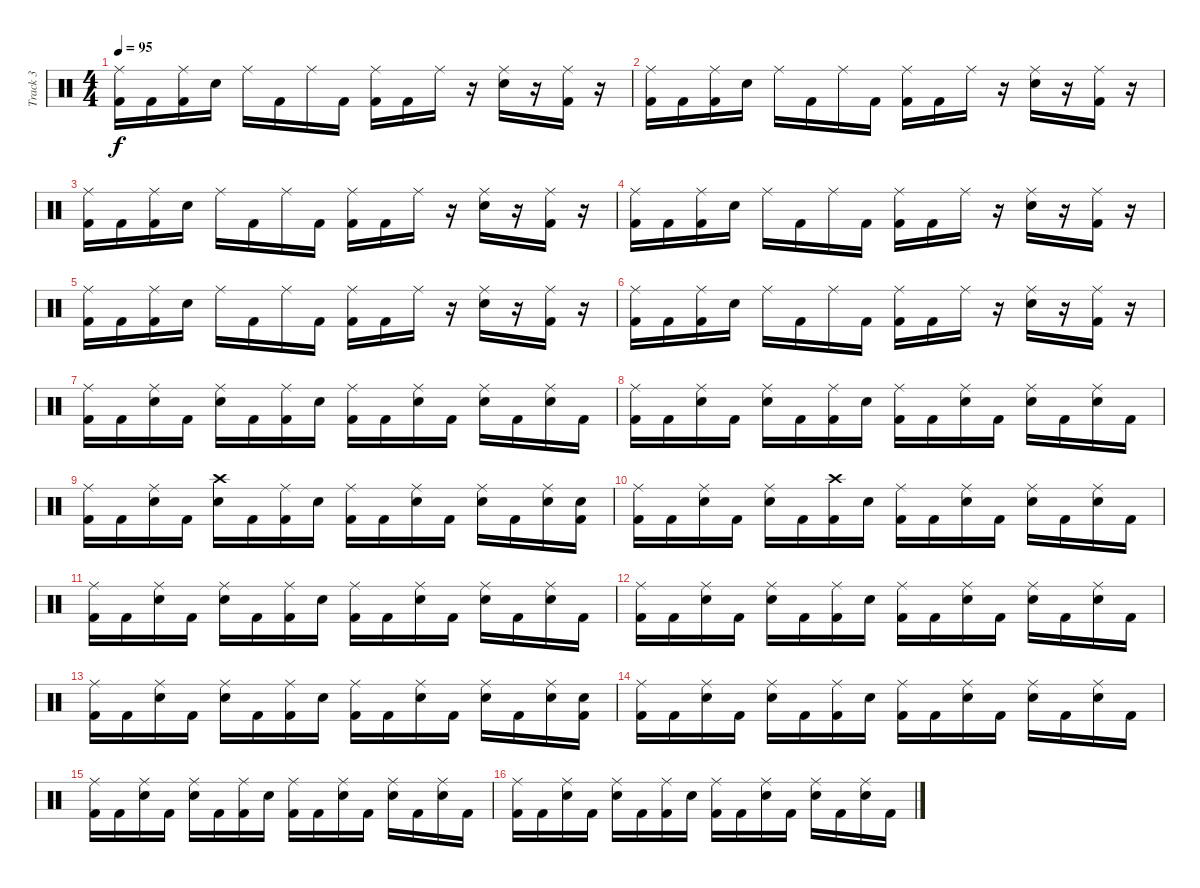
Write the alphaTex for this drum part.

\track ("Track 3" "Track 3") {instrument percussion}
\staff {score}
\articulation defaults
\ts (4 4)
\tempo 95
\clef neutral
\ks c
("Ride (middle)" "Kick (hit) 2").16{dy f} "Kick (hit) 2".16 ("Ride (middle)" "Kick (hit) 2").16 "Snare (hit) 2".16 "Ride (middle)".16 "Kick (hit) 2".16 "Ride (middle)".16 "Kick (hit) 2".16 ("Ride (middle)" "Kick (hit) 2").16 "Kick (hit) 2".16 "Ride (middle)".16 r.16 ("Ride (middle)" "Snare (hit) 2").16 r.16 ("Ride (middle)" "Kick (hit) 2").16 r.16 |
("Ride (middle)" "Kick (hit) 2").16 "Kick (hit) 2".16 ("Ride (middle)" "Kick (hit) 2").16 "Snare (hit) 2".16 "Ride (middle)".16 "Kick (hit) 2".16 "Ride (middle)".16 "Kick (hit) 2".16 ("Ride (middle)" "Kick (hit) 2").16 "Kick (hit) 2".16 "Ride (middle)".16 r.16 ("Ride (middle)" "Snare (hit) 2").16 r.16 ("Ride (middle)" "Kick (hit) 2").16 r.16 |
("Ride (middle)" "Kick (hit) 2").16 "Kick (hit) 2".16 ("Ride (middle)" "Kick (hit) 2").16 "Snare (hit) 2".16 "Ride (middle)".16 "Kick (hit) 2".16 "Ride (middle)".16 "Kick (hit) 2".16 ("Ride (middle)" "Kick (hit) 2").16 "Kick (hit) 2".16 "Ride (middle)".16 r.16 ("Ride (middle)" "Snare (hit) 2").16 r.16 ("Ride (middle)" "Kick (hit) 2").16 r.16 |
("Ride (middle)" "Kick (hit) 2").16 "Kick (hit) 2".16 ("Ride (middle)" "Kick (hit) 2").16 "Snare (hit) 2".16 "Ride (middle)".16 "Kick (hit) 2".16 "Ride (middle)".16 "Kick (hit) 2".16 ("Ride (middle)" "Kick (hit) 2").16 "Kick (hit) 2".16 "Ride (middle)".16 r.16 ("Ride (middle)" "Snare (hit) 2").16 r.16 ("Ride (middle)" "Kick (hit) 2").16 r.16 |
("Ride (middle)" "Kick (hit) 2").16 "Kick (hit) 2".16 ("Ride (middle)" "Kick (hit) 2").16 "Snare (hit) 2".16 "Ride (middle)".16 "Kick (hit) 2".16 "Ride (middle)".16 "Kick (hit) 2".16 ("Ride (middle)" "Kick (hit) 2").16 "Kick (hit) 2".16 "Ride (middle)".16 r.16 ("Ride (middle)" "Snare (hit) 2").16 r.16 ("Ride (middle)" "Kick (hit) 2").16 r.16 |
("Ride (middle)" "Kick (hit) 2").16 "Kick (hit) 2".16 ("Ride (middle)" "Kick (hit) 2").16 "Snare (hit) 2".16 "Ride (middle)".16 "Kick (hit) 2".16 "Ride (middle)".16 "Kick (hit) 2".16 ("Ride (middle)" "Kick (hit) 2").16 "Kick (hit) 2".16 "Ride (middle)".16 r.16 ("Ride (middle)" "Snare (hit) 2").16 r.16 ("Ride (middle)" "Kick (hit) 2").16 r.16 |
("Ride (middle)" "Kick (hit) 2").16 "Kick (hit) 2".16 ("Ride (middle)" "Snare (hit) 2").16 "Kick (hit) 2".16 ("Ride (middle)" "Snare (hit) 2").16 "Kick (hit) 2".16 ("Ride (middle)" "Kick (hit) 2").16 "Snare (hit) 2".16 ("Ride (middle)" "Kick (hit) 2").16 "Kick (hit) 2".16 ("Ride (middle)" "Snare (hit) 2").16 "Kick (hit) 2".16 ("Ride (middle)" "Snare (hit) 2").16 "Kick (hit) 2".16 ("Ride (middle)" "Snare (hit) 2").16 "Kick (hit) 2".16 |
("Ride (middle)" "Kick (hit) 2").16 "Kick (hit) 2".16 ("Ride (middle)" "Snare (hit) 2").16 "Kick (hit) 2".16 ("Ride (middle)" "Snare (hit) 2").16 "Kick (hit) 2".16 ("Ride (middle)" "Kick (hit) 2").16 "Snare (hit) 2".16 ("Ride (middle)" "Kick (hit) 2").16 "Kick (hit) 2".16 ("Ride (middle)" "Snare (hit) 2").16 "Kick (hit) 2".16 ("Ride (middle)" "Snare (hit) 2").16 "Kick (hit) 2".16 ("Ride (middle)" "Snare (hit) 2").16 "Kick (hit) 2".16 |
("Ride (middle)" "Kick (hit) 2").16 "Kick (hit) 2".16 ("Ride (middle)" "Snare (hit) 2").16 "Kick (hit) 2".16 ("Crash high (hit)" "Snare (hit) 2").16 "Kick (hit) 2".16 ("Ride (middle)" "Kick (hit) 2").16 "Snare (hit) 2".16 ("Ride (middle)" "Kick (hit) 2").16 "Kick (hit) 2".16 ("Ride (middle)" "Snare (hit) 2").16 "Kick (hit) 2".16 ("Ride (middle)" "Snare (hit) 2").16 "Kick (hit) 2".16 ("Ride (middle)" "Snare (hit) 2").16 ("Snare (hit) 2" "Kick (hit) 2").16 |
("Ride (middle)" "Kick (hit) 2").16 "Kick (hit) 2".16 ("Ride (middle)" "Snare (hit) 2").16 "Kick (hit) 2".16 ("Ride (middle)" "Snare (hit) 2").16 "Kick (hit) 2".16 ("Crash high (hit)" "Kick (hit) 2").16 "Snare (hit) 2".16 ("Ride (middle)" "Kick (hit) 2").16 "Kick (hit) 2".16 ("Ride (middle)" "Snare (hit) 2").16 "Kick (hit) 2".16 ("Ride (middle)" "Snare (hit) 2").16 "Kick (hit) 2".16 ("Ride (middle)" "Snare (hit) 2").16 "Kick (hit) 2".16 |
("Ride (middle)" "Kick (hit) 2").16 "Kick (hit) 2".16 ("Ride (middle)" "Snare (hit) 2").16 "Kick (hit) 2".16 ("Ride (middle)" "Snare (hit) 2").16 "Kick (hit) 2".16 ("Ride (middle)" "Kick (hit) 2").16 "Snare (hit) 2".16 ("Ride (middle)" "Kick (hit) 2").16 "Kick (hit) 2".16 ("Ride (middle)" "Snare (hit) 2").16 "Kick (hit) 2".16 ("Ride (middle)" "Snare (hit) 2").16 "Kick (hit) 2".16 ("Ride (middle)" "Snare (hit) 2").16 "Kick (hit) 2".16 |
("Ride (middle)" "Kick (hit) 2").16 "Kick (hit) 2".16 ("Ride (middle)" "Snare (hit) 2").16 "Kick (hit) 2".16 ("Ride (middle)" "Snare (hit) 2").16 "Kick (hit) 2".16 ("Ride (middle)" "Kick (hit) 2").16 "Snare (hit) 2".16 ("Ride (middle)" "Kick (hit) 2").16 "Kick (hit) 2".16 ("Ride (middle)" "Snare (hit) 2").16 "Kick (hit) 2".16 ("Ride (middle)" "Snare (hit) 2").16 "Kick (hit) 2".16 ("Ride (middle)" "Snare (hit) 2").16 "Kick (hit) 2".16 |
("Ride (middle)" "Kick (hit) 2").16 "Kick (hit) 2".16 ("Ride (middle)" "Snare (hit) 2").16 "Kick (hit) 2".16 ("Ride (middle)" "Snare (hit) 2").16 "Kick (hit) 2".16 ("Ride (middle)" "Kick (hit) 2").16 "Snare (hit) 2".16 ("Ride (middle)" "Kick (hit) 2").16 "Kick (hit) 2".16 ("Ride (middle)" "Snare (hit) 2").16 "Kick (hit) 2".16 ("Ride (middle)" "Snare (hit) 2").16 "Kick (hit) 2".16 ("Ride (middle)" "Snare (hit) 2").16 ("Snare (hit) 2" "Kick (hit) 2").16 |
("Ride (middle)" "Kick (hit) 2").16 "Kick (hit) 2".16 ("Ride (middle)" "Snare (hit) 2").16 "Kick (hit) 2".16 ("Ride (middle)" "Snare (hit) 2").16 "Kick (hit) 2".16 ("Ride (middle)" "Kick (hit) 2").16 "Snare (hit) 2".16 ("Ride (middle)" "Kick (hit) 2").16 "Kick (hit) 2".16 ("Ride (middle)" "Snare (hit) 2").16 "Kick (hit) 2".16 ("Ride (middle)" "Snare (hit) 2").16 "Kick (hit) 2".16 ("Ride (middle)" "Snare (hit) 2").16 "Kick (hit) 2".16 |
("Ride (middle)" "Kick (hit) 2").16 "Kick (hit) 2".16 ("Ride (middle)" "Snare (hit) 2").16 "Kick (hit) 2".16 ("Ride (middle)" "Snare (hit) 2").16 "Kick (hit) 2".16 ("Ride (middle)" "Kick (hit) 2").16 "Snare (hit) 2".16 ("Ride (middle)" "Kick (hit) 2").16 "Kick (hit) 2".16 ("Ride (middle)" "Snare (hit) 2").16 "Kick (hit) 2".16 ("Ride (middle)" "Snare (hit) 2").16 "Kick (hit) 2".16 ("Ride (middle)" "Snare (hit) 2").16 "Kick (hit) 2".16 |
("Ride (middle)" "Kick (hit) 2").16 "Kick (hit) 2".16 ("Ride (middle)" "Snare (hit) 2").16 "Kick (hit) 2".16 ("Ride (middle)" "Snare (hit) 2").16 "Kick (hit) 2".16 ("Ride (middle)" "Kick (hit) 2").16 "Snare (hit) 2".16 ("Ride (middle)" "Kick (hit) 2").16 "Kick (hit) 2".16 ("Ride (middle)" "Snare (hit) 2").16 "Kick (hit) 2".16 ("Ride (middle)" "Snare (hit) 2").16 "Kick (hit) 2".16 ("Ride (middle)" "Snare (hit) 2").16 "Kick (hit) 2".16
